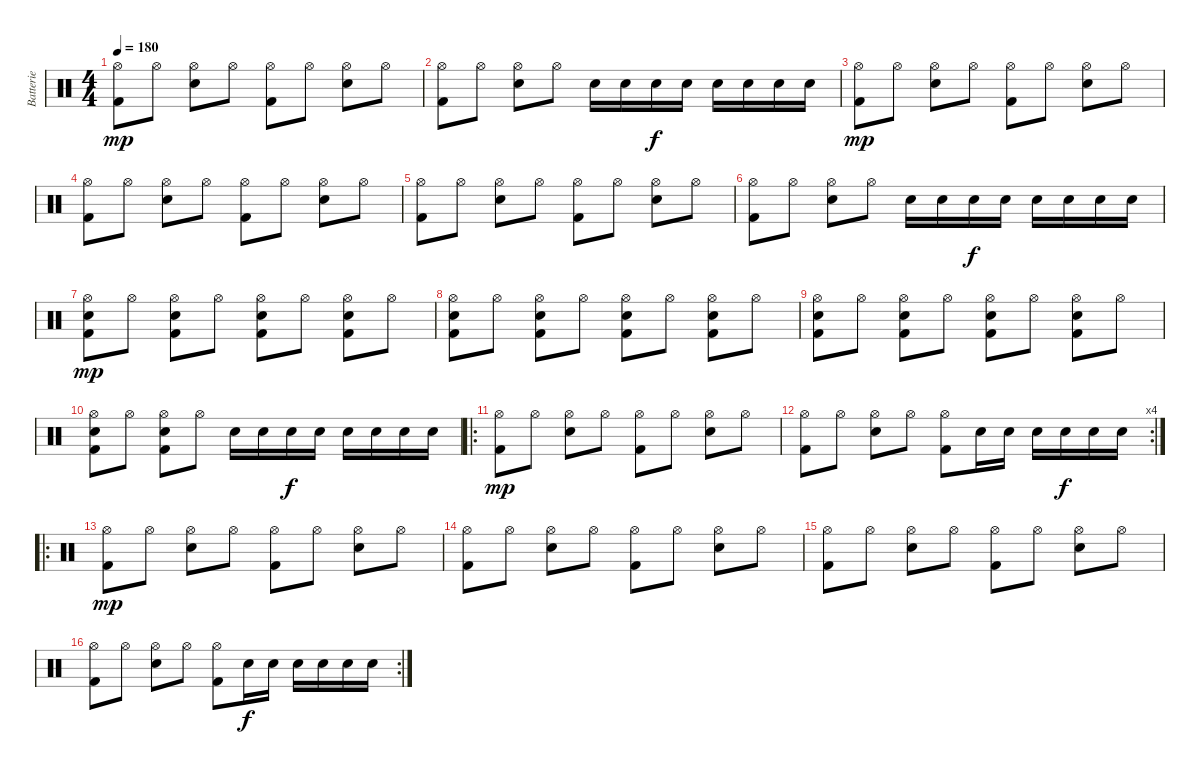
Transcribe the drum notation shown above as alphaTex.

\track ("Batterie" "Batterie") {instrument percussion}
\staff {score}
\articulation defaults
\ts (4 4)
\tempo 180
\clef neutral
\ks c
("Hi-Hat (open)" "Kick (hit) 2").8{dy mp} "Hi-Hat (open)".8 ("Hi-Hat (open)" "Electric Snare (hit)").8 "Hi-Hat (open)".8 ("Hi-Hat (open)" "Kick (hit) 2").8 "Hi-Hat (open)".8 ("Hi-Hat (open)" "Electric Snare (hit)").8 "Hi-Hat (open)".8 |
("Hi-Hat (open)" "Kick (hit) 2").8 "Hi-Hat (open)".8 ("Hi-Hat (open)" "Electric Snare (hit)").8 "Hi-Hat (open)".8 "Electric Snare (hit)".16 "Electric Snare (hit)".16 "Electric Snare (hit)".16{dy f} "Electric Snare (hit)".16 "Electric Snare (hit)".16 "Electric Snare (hit)".16 "Electric Snare (hit)".16 "Electric Snare (hit)".16 |
("Hi-Hat (open)" "Kick (hit) 2").8{dy mp} "Hi-Hat (open)".8 ("Hi-Hat (open)" "Electric Snare (hit)").8 "Hi-Hat (open)".8 ("Hi-Hat (open)" "Kick (hit) 2").8 "Hi-Hat (open)".8 ("Hi-Hat (open)" "Electric Snare (hit)").8 "Hi-Hat (open)".8 |
("Hi-Hat (open)" "Kick (hit) 2").8 "Hi-Hat (open)".8 ("Hi-Hat (open)" "Electric Snare (hit)").8 "Hi-Hat (open)".8 ("Hi-Hat (open)" "Kick (hit) 2").8 "Hi-Hat (open)".8 ("Hi-Hat (open)" "Electric Snare (hit)").8 "Hi-Hat (open)".8 |
("Hi-Hat (open)" "Kick (hit) 2").8 "Hi-Hat (open)".8 ("Hi-Hat (open)" "Electric Snare (hit)").8 "Hi-Hat (open)".8 ("Hi-Hat (open)" "Kick (hit) 2").8 "Hi-Hat (open)".8 ("Hi-Hat (open)" "Electric Snare (hit)").8 "Hi-Hat (open)".8 |
("Hi-Hat (open)" "Kick (hit) 2").8 "Hi-Hat (open)".8 ("Hi-Hat (open)" "Electric Snare (hit)").8 "Hi-Hat (open)".8 "Electric Snare (hit)".16 "Electric Snare (hit)".16 "Electric Snare (hit)".16{dy f} "Electric Snare (hit)".16 "Electric Snare (hit)".16 "Electric Snare (hit)".16 "Electric Snare (hit)".16 "Electric Snare (hit)".16 |
("Hi-Hat (open)" "Kick (hit) 2" "Electric Snare (hit)").8{dy mp} "Hi-Hat (open)".8 ("Hi-Hat (open)" "Kick (hit) 2" "Electric Snare (hit)").8 "Hi-Hat (open)".8 ("Hi-Hat (open)" "Kick (hit) 2" "Electric Snare (hit)").8 "Hi-Hat (open)".8 ("Hi-Hat (open)" "Kick (hit) 2" "Electric Snare (hit)").8 "Hi-Hat (open)".8 |
("Hi-Hat (open)" "Kick (hit) 2" "Electric Snare (hit)").8 "Hi-Hat (open)".8 ("Hi-Hat (open)" "Electric Snare (hit)" "Kick (hit) 2").8 "Hi-Hat (open)".8 ("Hi-Hat (open)" "Kick (hit) 2" "Electric Snare (hit)").8 "Hi-Hat (open)".8 ("Hi-Hat (open)" "Electric Snare (hit)" "Kick (hit) 2").8 "Hi-Hat (open)".8 |
("Hi-Hat (open)" "Kick (hit) 2" "Electric Snare (hit)").8 "Hi-Hat (open)".8 ("Hi-Hat (open)" "Electric Snare (hit)" "Kick (hit) 2").8 "Hi-Hat (open)".8 ("Hi-Hat (open)" "Kick (hit) 2" "Electric Snare (hit)").8 "Hi-Hat (open)".8 ("Hi-Hat (open)" "Electric Snare (hit)" "Kick (hit) 2").8 "Hi-Hat (open)".8 |
("Hi-Hat (open)" "Kick (hit) 2" "Electric Snare (hit)").8 "Hi-Hat (open)".8 ("Hi-Hat (open)" "Electric Snare (hit)" "Kick (hit) 2").8 "Hi-Hat (open)".8 "Electric Snare (hit)".16 "Electric Snare (hit)".16 "Electric Snare (hit)".16{dy f} "Electric Snare (hit)".16 "Electric Snare (hit)".16 "Electric Snare (hit)".16 "Electric Snare (hit)".16 "Electric Snare (hit)".16 |
\ro
("Hi-Hat (open)" "Kick (hit) 2").8{dy mp} "Hi-Hat (open)".8 ("Hi-Hat (open)" "Electric Snare (hit)").8 "Hi-Hat (open)".8 ("Hi-Hat (open)" "Kick (hit) 2").8 "Hi-Hat (open)".8 ("Hi-Hat (open)" "Electric Snare (hit)").8 "Hi-Hat (open)".8 |
\rc 4
("Hi-Hat (open)" "Kick (hit) 2").8 "Hi-Hat (open)".8 ("Hi-Hat (open)" "Electric Snare (hit)").8 "Hi-Hat (open)".8 ("Hi-Hat (open)" "Kick (hit) 2").8 "Electric Snare (hit)".16 "Electric Snare (hit)".16 "Electric Snare (hit)".16 "Electric Snare (hit)".16{dy f} "Electric Snare (hit)".16 "Electric Snare (hit)".16 |
\ro
("Hi-Hat (open)" "Kick (hit) 2").8{dy mp} "Hi-Hat (open)".8 ("Hi-Hat (open)" "Electric Snare (hit)").8 "Hi-Hat (open)".8 ("Hi-Hat (open)" "Kick (hit) 2").8 "Hi-Hat (open)".8 ("Hi-Hat (open)" "Electric Snare (hit)").8 "Hi-Hat (open)".8 |
("Hi-Hat (open)" "Kick (hit) 2").8 "Hi-Hat (open)".8 ("Hi-Hat (open)" "Electric Snare (hit)").8 "Hi-Hat (open)".8 ("Hi-Hat (open)" "Kick (hit) 2").8 "Hi-Hat (open)".8 ("Hi-Hat (open)" "Electric Snare (hit)").8 "Hi-Hat (open)".8 |
("Hi-Hat (open)" "Kick (hit) 2").8 "Hi-Hat (open)".8 ("Hi-Hat (open)" "Electric Snare (hit)").8 "Hi-Hat (open)".8 ("Hi-Hat (open)" "Kick (hit) 2").8 "Hi-Hat (open)".8 ("Hi-Hat (open)" "Electric Snare (hit)").8 "Hi-Hat (open)".8 |
\rc 2
("Hi-Hat (open)" "Kick (hit) 2").8 "Hi-Hat (open)".8 ("Hi-Hat (open)" "Electric Snare (hit)").8 "Hi-Hat (open)".8 ("Hi-Hat (open)" "Kick (hit) 2").8 "Electric Snare (hit)".16{dy f} "Electric Snare (hit)".16 "Electric Snare (hit)".16 "Electric Snare (hit)".16 "Electric Snare (hit)".16 "Electric Snare (hit)".16
